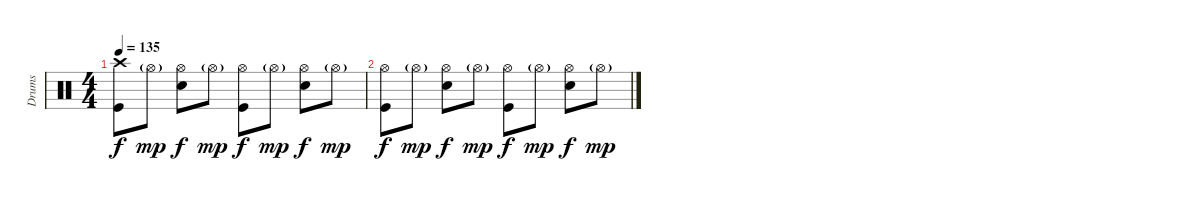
\track ("Drums" "Drums") {instrument percussion}
\staff {score}
\articulation defaults
\ts (4 4)
\tempo 135
\clef neutral
\ks c
("Crash high (hit)" "Kick (hit)").8{dy f} "Hi-Hat (open)"{g}.8{dy mp} ("Hi-Hat (open)" "Snare (hit) 2").8{dy f} "Hi-Hat (open)"{g}.8{dy mp} ("Hi-Hat (open)" "Kick (hit)").8{dy f} "Hi-Hat (open)"{g}.8{dy mp} ("Hi-Hat (open)" "Snare (hit) 2").8{dy f} "Hi-Hat (open)"{g}.8{dy mp} |
("Hi-Hat (open)" "Kick (hit)").8{dy f} "Hi-Hat (open)"{g}.8{dy mp} ("Hi-Hat (open)" "Snare (hit) 2").8{dy f} "Hi-Hat (open)"{g}.8{dy mp} ("Hi-Hat (open)" "Kick (hit)").8{dy f} "Hi-Hat (open)"{g}.8{dy mp} ("Hi-Hat (open)" "Snare (hit) 2").8{dy f} "Hi-Hat (open)"{g}.8{dy mp}
